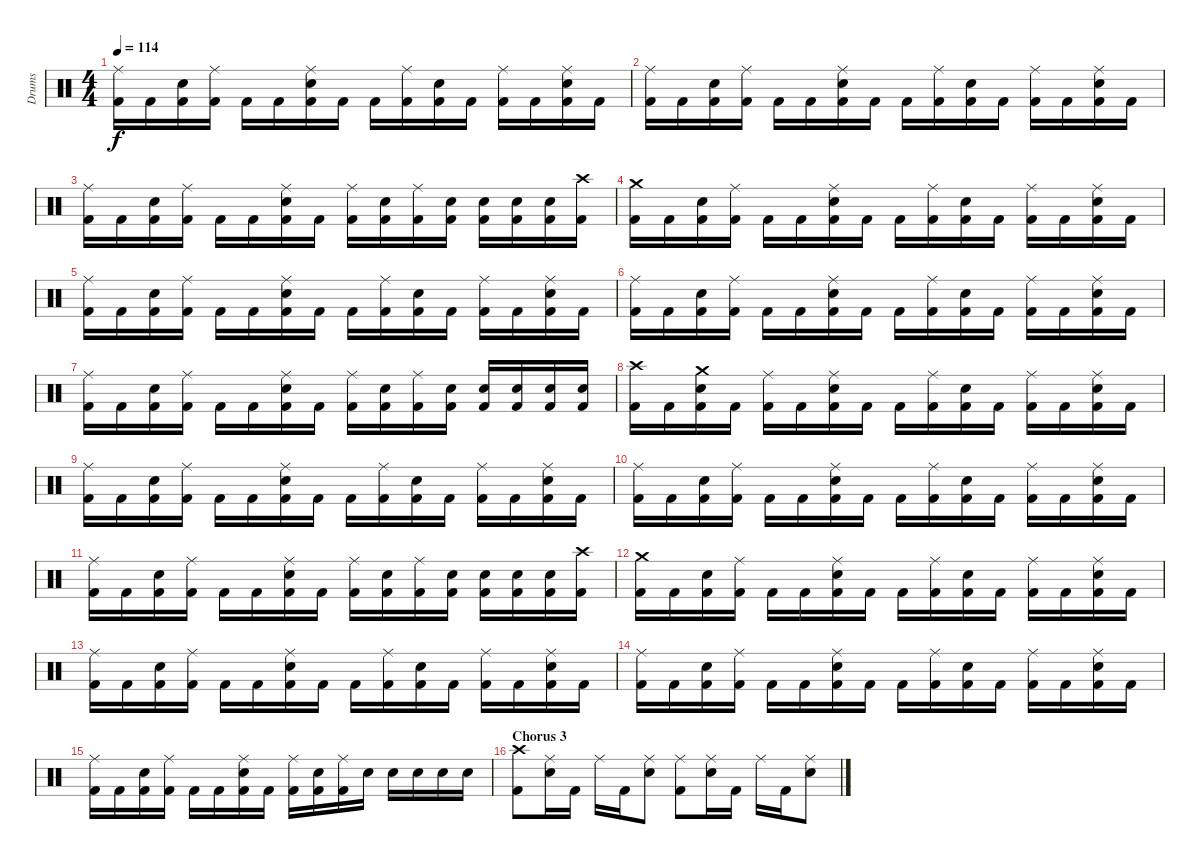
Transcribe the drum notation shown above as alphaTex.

\track ("Drums" "Drums") {instrument percussion}
\staff {score}
\articulation defaults
\ts (4 4)
\tempo 114
\clef neutral
\ks c
("Ride (middle)" "Kick (hit) 2").16{dy f} "Kick (hit) 2".16 ("Snare (hit) 2" "Kick (hit) 2").16 ("Ride (middle)" "Kick (hit) 2").16 "Kick (hit) 2".16 "Kick (hit) 2".16 ("Ride (middle)" "Snare (hit) 2" "Kick (hit) 2").16 "Kick (hit) 2".16 "Kick (hit) 2".16 ("Ride (middle)" "Kick (hit) 2").16 ("Snare (hit) 2" "Kick (hit) 2").16 "Kick (hit) 2".16 ("Ride (middle)" "Kick (hit) 2").16 "Kick (hit) 2".16 ("Ride (middle)" "Snare (hit) 2" "Kick (hit) 2").16 "Kick (hit) 2".16 |
("Ride (middle)" "Kick (hit) 2").16 "Kick (hit) 2".16 ("Snare (hit) 2" "Kick (hit) 2").16 ("Ride (middle)" "Kick (hit) 2").16 "Kick (hit) 2".16 "Kick (hit) 2".16 ("Ride (middle)" "Snare (hit) 2" "Kick (hit) 2").16 "Kick (hit) 2".16 "Kick (hit) 2".16 ("Ride (middle)" "Kick (hit) 2").16 ("Snare (hit) 2" "Kick (hit) 2").16 "Kick (hit) 2".16 ("Ride (middle)" "Kick (hit) 2").16 "Kick (hit) 2".16 ("Ride (middle)" "Snare (hit) 2" "Kick (hit) 2").16 "Kick (hit) 2".16 |
("Ride (middle)" "Kick (hit) 2").16 "Kick (hit) 2".16 ("Snare (hit) 2" "Kick (hit) 2").16 ("Ride (middle)" "Kick (hit) 2").16 "Kick (hit) 2".16 "Kick (hit) 2".16 ("Ride (middle)" "Snare (hit) 2" "Kick (hit) 2").16 "Kick (hit) 2".16 ("Ride (middle)" "Kick (hit) 2").16 ("Snare (hit) 2" "Kick (hit) 2").16 ("Ride (middle)" "Kick (hit) 2").16 ("Snare (hit) 2" "Kick (hit) 2").16 ("Snare (hit) 2" "Kick (hit) 2").16 ("Snare (hit) 2" "Kick (hit) 2").16 ("Snare (hit) 2" "Kick (hit) 2").16 ("Crash high (hit)" "Kick (hit) 2").16 |
("Crash medium (hit)" "Kick (hit) 2").16 "Kick (hit) 2".16 ("Snare (hit) 2" "Kick (hit) 2").16 ("Ride (middle)" "Kick (hit) 2").16 "Kick (hit) 2".16 "Kick (hit) 2".16 ("Ride (middle)" "Snare (hit) 2" "Kick (hit) 2").16 "Kick (hit) 2".16 "Kick (hit) 2".16 ("Ride (middle)" "Kick (hit) 2").16 ("Snare (hit) 2" "Kick (hit) 2").16 "Kick (hit) 2".16 ("Ride (middle)" "Kick (hit) 2").16 "Kick (hit) 2".16 ("Ride (middle)" "Snare (hit) 2" "Kick (hit) 2").16 "Kick (hit) 2".16 |
("Ride (middle)" "Kick (hit) 2").16 "Kick (hit) 2".16 ("Snare (hit) 2" "Kick (hit) 2").16 ("Ride (middle)" "Kick (hit) 2").16 "Kick (hit) 2".16 "Kick (hit) 2".16 ("Ride (middle)" "Snare (hit) 2" "Kick (hit) 2").16 "Kick (hit) 2".16 "Kick (hit) 2".16 ("Ride (middle)" "Kick (hit) 2").16 ("Snare (hit) 2" "Kick (hit) 2").16 "Kick (hit) 2".16 ("Ride (middle)" "Kick (hit) 2").16 "Kick (hit) 2".16 ("Ride (middle)" "Snare (hit) 2" "Kick (hit) 2").16 "Kick (hit) 2".16 |
("Ride (middle)" "Kick (hit) 2").16 "Kick (hit) 2".16 ("Snare (hit) 2" "Kick (hit) 2").16 ("Ride (middle)" "Kick (hit) 2").16 "Kick (hit) 2".16 "Kick (hit) 2".16 ("Ride (middle)" "Snare (hit) 2" "Kick (hit) 2").16 "Kick (hit) 2".16 "Kick (hit) 2".16 ("Ride (middle)" "Kick (hit) 2").16 ("Snare (hit) 2" "Kick (hit) 2").16 "Kick (hit) 2".16 ("Ride (middle)" "Kick (hit) 2").16 "Kick (hit) 2".16 ("Ride (middle)" "Snare (hit) 2" "Kick (hit) 2").16 "Kick (hit) 2".16 |
("Ride (middle)" "Kick (hit) 2").16 "Kick (hit) 2".16 ("Snare (hit) 2" "Kick (hit) 2").16 ("Ride (middle)" "Kick (hit) 2").16 "Kick (hit) 2".16 "Kick (hit) 2".16 ("Ride (middle)" "Snare (hit) 2" "Kick (hit) 2").16 "Kick (hit) 2".16 ("Ride (middle)" "Kick (hit) 2").16 ("Snare (hit) 2" "Kick (hit) 2").16 ("Ride (middle)" "Kick (hit) 2").16 ("Snare (hit) 2" "Kick (hit) 2").16 ("Snare (hit) 2" "Kick (hit) 2").16 ("Snare (hit) 2" "Kick (hit) 2").16 ("Snare (hit) 2" "Kick (hit) 2").16 ("Snare (hit) 2" "Kick (hit) 2").16 |
("Crash high (hit)" "Kick (hit) 2").16 "Kick (hit) 2".16 ("Crash medium (hit)" "Snare (hit) 2" "Kick (hit) 2").16 "Kick (hit) 2".16 ("Ride (middle)" "Kick (hit) 2").16 "Kick (hit) 2".16 ("Ride (middle)" "Snare (hit) 2" "Kick (hit) 2").16 "Kick (hit) 2".16 "Kick (hit) 2".16 ("Ride (middle)" "Kick (hit) 2").16 ("Snare (hit) 2" "Kick (hit) 2").16 "Kick (hit) 2".16 ("Ride (middle)" "Kick (hit) 2").16 "Kick (hit) 2".16 ("Ride (middle)" "Snare (hit) 2" "Kick (hit) 2").16 "Kick (hit) 2".16 |
("Ride (middle)" "Kick (hit) 2").16 "Kick (hit) 2".16 ("Snare (hit) 2" "Kick (hit) 2").16 ("Ride (middle)" "Kick (hit) 2").16 "Kick (hit) 2".16 "Kick (hit) 2".16 ("Ride (middle)" "Snare (hit) 2" "Kick (hit) 2").16 "Kick (hit) 2".16 "Kick (hit) 2".16 ("Ride (middle)" "Kick (hit) 2").16 ("Snare (hit) 2" "Kick (hit) 2").16 "Kick (hit) 2".16 ("Ride (middle)" "Kick (hit) 2").16 "Kick (hit) 2".16 ("Ride (middle)" "Snare (hit) 2" "Kick (hit) 2").16 "Kick (hit) 2".16 |
("Ride (middle)" "Kick (hit) 2").16 "Kick (hit) 2".16 ("Snare (hit) 2" "Kick (hit) 2").16 ("Ride (middle)" "Kick (hit) 2").16 "Kick (hit) 2".16 "Kick (hit) 2".16 ("Ride (middle)" "Snare (hit) 2" "Kick (hit) 2").16 "Kick (hit) 2".16 "Kick (hit) 2".16 ("Ride (middle)" "Kick (hit) 2").16 ("Snare (hit) 2" "Kick (hit) 2").16 "Kick (hit) 2".16 ("Ride (middle)" "Kick (hit) 2").16 "Kick (hit) 2".16 ("Ride (middle)" "Snare (hit) 2" "Kick (hit) 2").16 "Kick (hit) 2".16 |
("Ride (middle)" "Kick (hit) 2").16 "Kick (hit) 2".16 ("Snare (hit) 2" "Kick (hit) 2").16 ("Ride (middle)" "Kick (hit) 2").16 "Kick (hit) 2".16 "Kick (hit) 2".16 ("Ride (middle)" "Snare (hit) 2" "Kick (hit) 2").16 "Kick (hit) 2".16 ("Ride (middle)" "Kick (hit) 2").16 ("Snare (hit) 2" "Kick (hit) 2").16 ("Ride (middle)" "Kick (hit) 2").16 ("Snare (hit) 2" "Kick (hit) 2").16 ("Snare (hit) 2" "Kick (hit) 2").16 ("Snare (hit) 2" "Kick (hit) 2").16 ("Snare (hit) 2" "Kick (hit) 2").16 ("Crash high (hit)" "Kick (hit) 2").16 |
("Crash medium (hit)" "Kick (hit) 2").16 "Kick (hit) 2".16 ("Snare (hit) 2" "Kick (hit) 2").16 ("Ride (middle)" "Kick (hit) 2").16 "Kick (hit) 2".16 "Kick (hit) 2".16 ("Ride (middle)" "Snare (hit) 2" "Kick (hit) 2").16 "Kick (hit) 2".16 "Kick (hit) 2".16 ("Ride (middle)" "Kick (hit) 2").16 ("Snare (hit) 2" "Kick (hit) 2").16 "Kick (hit) 2".16 ("Ride (middle)" "Kick (hit) 2").16 "Kick (hit) 2".16 ("Ride (middle)" "Snare (hit) 2" "Kick (hit) 2").16 "Kick (hit) 2".16 |
("Ride (middle)" "Kick (hit) 2").16 "Kick (hit) 2".16 ("Snare (hit) 2" "Kick (hit) 2").16 ("Ride (middle)" "Kick (hit) 2").16 "Kick (hit) 2".16 "Kick (hit) 2".16 ("Ride (middle)" "Snare (hit) 2" "Kick (hit) 2").16 "Kick (hit) 2".16 "Kick (hit) 2".16 ("Ride (middle)" "Kick (hit) 2").16 ("Snare (hit) 2" "Kick (hit) 2").16 "Kick (hit) 2".16 ("Ride (middle)" "Kick (hit) 2").16 "Kick (hit) 2".16 ("Ride (middle)" "Snare (hit) 2" "Kick (hit) 2").16 "Kick (hit) 2".16 |
("Ride (middle)" "Kick (hit) 2").16 "Kick (hit) 2".16 ("Snare (hit) 2" "Kick (hit) 2").16 ("Ride (middle)" "Kick (hit) 2").16 "Kick (hit) 2".16 "Kick (hit) 2".16 ("Ride (middle)" "Snare (hit) 2" "Kick (hit) 2").16 "Kick (hit) 2".16 "Kick (hit) 2".16 ("Ride (middle)" "Kick (hit) 2").16 ("Snare (hit) 2" "Kick (hit) 2").16 "Kick (hit) 2".16 ("Ride (middle)" "Kick (hit) 2").16 "Kick (hit) 2".16 ("Ride (middle)" "Snare (hit) 2" "Kick (hit) 2").16 "Kick (hit) 2".16 |
("Ride (middle)" "Kick (hit) 2").16 "Kick (hit) 2".16 ("Snare (hit) 2" "Kick (hit) 2").16 ("Ride (middle)" "Kick (hit) 2").16 "Kick (hit) 2".16 "Kick (hit) 2".16 ("Ride (middle)" "Snare (hit) 2" "Kick (hit) 2").16 "Kick (hit) 2".16 ("Ride (middle)" "Kick (hit) 2").16 ("Snare (hit) 2" "Kick (hit) 2").16 ("Ride (middle)" "Kick (hit) 2").16 "Snare (hit) 2".16 "Snare (hit) 2".16 "Snare (hit) 2".16 "Snare (hit) 2".16 "Snare (hit) 2".16 |
\section ("" "Chorus 3")
("Crash high (hit)" "Kick (hit) 2").8 ("Ride (middle)" "Snare (hit) 2").16 "Kick (hit) 2".16 "Ride (middle)".16 "Kick (hit) 2".16 ("Ride (middle)" "Snare (hit) 2").8 ("Ride (middle)" "Kick (hit) 2").8 ("Ride (middle)" "Snare (hit) 2").16 "Kick (hit) 2".16 "Ride (middle)".16 "Kick (hit) 2".16 ("Ride (middle)" "Snare (hit) 2").8
